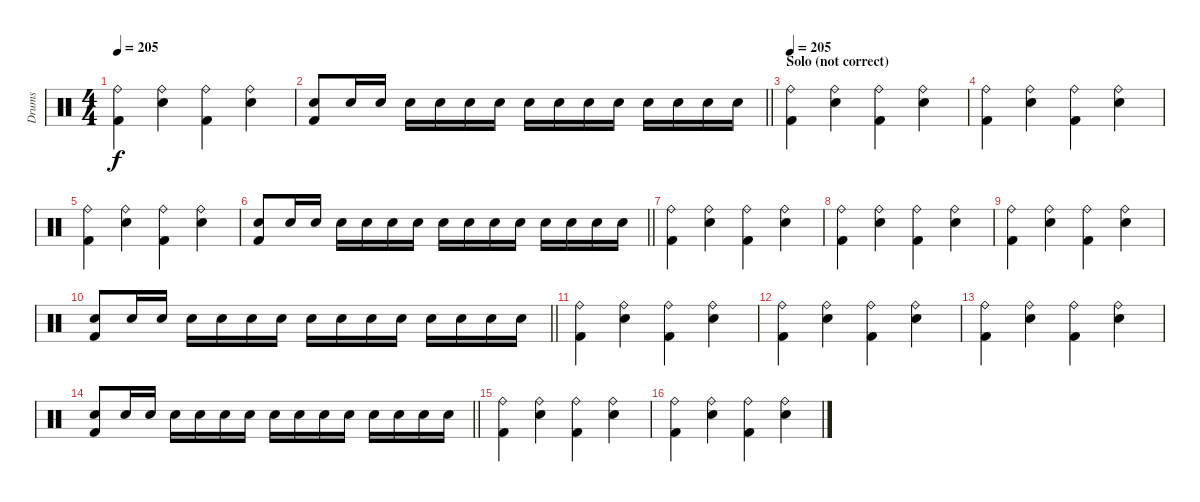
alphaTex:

\track ("Drums" "Drums") {instrument percussion}
\staff {score}
\articulation defaults
\ts (4 4)
\tempo 205
\clef neutral
\ks c
("Ride (bell)" "Kick (hit) 2").4{dy f} ("Ride (bell)" "Snare (hit) 2").4 ("Ride (bell)" "Kick (hit) 2").4 ("Ride (bell)" "Snare (hit) 2").4 |
\barLineRight lightlight
("Snare (hit) 2" "Kick (hit) 2").8 "Snare (hit) 2".16 "Snare (hit) 2".16 "Snare (hit) 2".16 "Snare (hit) 2".16 "Snare (hit) 2".16 "Snare (hit) 2".16 "Snare (hit) 2".16 "Snare (hit) 2".16 "Snare (hit) 2".16 "Snare (hit) 2".16 "Snare (hit) 2".16 "Snare (hit) 2".16 "Snare (hit) 2".16 "Snare (hit) 2".16 |
\section ("" "Solo (not correct)")
\tempo 205
("Ride (bell)" "Kick (hit) 2").4 ("Ride (bell)" "Snare (hit) 2").4 ("Ride (bell)" "Kick (hit) 2").4 ("Ride (bell)" "Snare (hit) 2").4 |
("Ride (bell)" "Kick (hit) 2").4 ("Ride (bell)" "Snare (hit) 2").4 ("Ride (bell)" "Kick (hit) 2").4 ("Ride (bell)" "Snare (hit) 2").4 |
("Ride (bell)" "Kick (hit) 2").4 ("Ride (bell)" "Snare (hit) 2").4 ("Ride (bell)" "Kick (hit) 2").4 ("Ride (bell)" "Snare (hit) 2").4 |
\barLineRight lightlight
("Snare (hit) 2" "Kick (hit) 2").8 "Snare (hit) 2".16 "Snare (hit) 2".16 "Snare (hit) 2".16 "Snare (hit) 2".16 "Snare (hit) 2".16 "Snare (hit) 2".16 "Snare (hit) 2".16 "Snare (hit) 2".16 "Snare (hit) 2".16 "Snare (hit) 2".16 "Snare (hit) 2".16 "Snare (hit) 2".16 "Snare (hit) 2".16 "Snare (hit) 2".16 |
("Ride (bell)" "Kick (hit) 2").4 ("Ride (bell)" "Snare (hit) 2").4 ("Ride (bell)" "Kick (hit) 2").4 ("Ride (bell)" "Snare (hit) 2").4 |
("Ride (bell)" "Kick (hit) 2").4 ("Ride (bell)" "Snare (hit) 2").4 ("Ride (bell)" "Kick (hit) 2").4 ("Ride (bell)" "Snare (hit) 2").4 |
("Ride (bell)" "Kick (hit) 2").4 ("Ride (bell)" "Snare (hit) 2").4 ("Ride (bell)" "Kick (hit) 2").4 ("Ride (bell)" "Snare (hit) 2").4 |
\barLineRight lightlight
("Snare (hit) 2" "Kick (hit) 2").8 "Snare (hit) 2".16 "Snare (hit) 2".16 "Snare (hit) 2".16 "Snare (hit) 2".16 "Snare (hit) 2".16 "Snare (hit) 2".16 "Snare (hit) 2".16 "Snare (hit) 2".16 "Snare (hit) 2".16 "Snare (hit) 2".16 "Snare (hit) 2".16 "Snare (hit) 2".16 "Snare (hit) 2".16 "Snare (hit) 2".16 |
("Ride (bell)" "Kick (hit) 2").4 ("Ride (bell)" "Snare (hit) 2").4 ("Ride (bell)" "Kick (hit) 2").4 ("Ride (bell)" "Snare (hit) 2").4 |
("Ride (bell)" "Kick (hit) 2").4 ("Ride (bell)" "Snare (hit) 2").4 ("Ride (bell)" "Kick (hit) 2").4 ("Ride (bell)" "Snare (hit) 2").4 |
("Ride (bell)" "Kick (hit) 2").4 ("Ride (bell)" "Snare (hit) 2").4 ("Ride (bell)" "Kick (hit) 2").4 ("Ride (bell)" "Snare (hit) 2").4 |
\barLineRight lightlight
("Snare (hit) 2" "Kick (hit) 2").8 "Snare (hit) 2".16 "Snare (hit) 2".16 "Snare (hit) 2".16 "Snare (hit) 2".16 "Snare (hit) 2".16 "Snare (hit) 2".16 "Snare (hit) 2".16 "Snare (hit) 2".16 "Snare (hit) 2".16 "Snare (hit) 2".16 "Snare (hit) 2".16 "Snare (hit) 2".16 "Snare (hit) 2".16 "Snare (hit) 2".16 |
("Ride (bell)" "Kick (hit) 2").4 ("Ride (bell)" "Snare (hit) 2").4 ("Ride (bell)" "Kick (hit) 2").4 ("Ride (bell)" "Snare (hit) 2").4 |
("Ride (bell)" "Kick (hit) 2").4 ("Ride (bell)" "Snare (hit) 2").4 ("Ride (bell)" "Kick (hit) 2").4 ("Ride (bell)" "Snare (hit) 2").4
